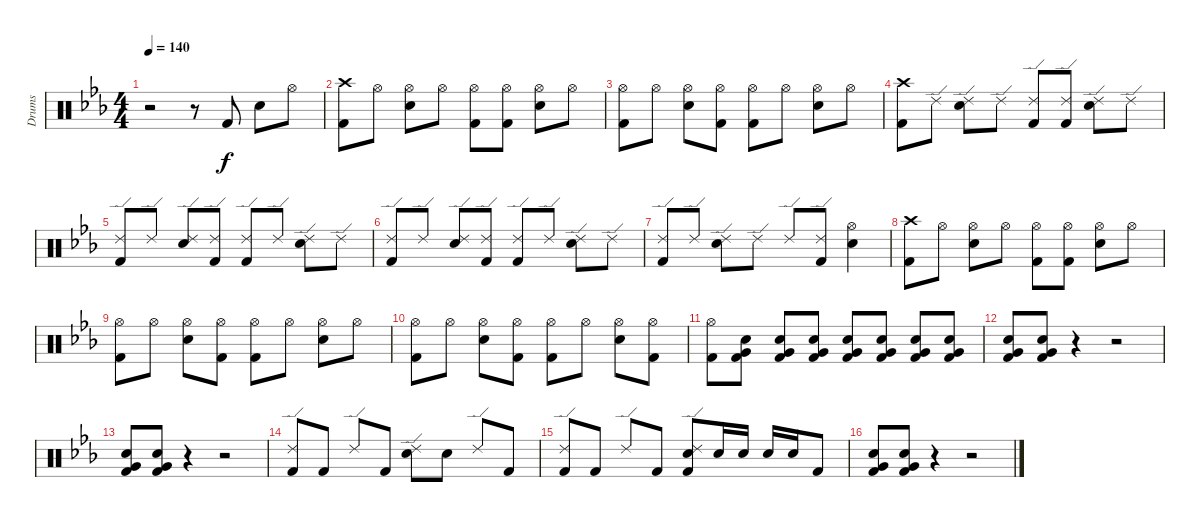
\track ("Drums" "Drums") {instrument percussion}
\staff {score}
\articulation defaults
\ts (4 4)
\tempo 140
\clef neutral
\ks eb
r.2{dy f} r.8 "Kick (hit) 2".8 "Snare (hit) 2".8 "Hi-Hat (open)".8 |
("Crash high (hit)" "Kick (hit) 2").8 "Hi-Hat (open)".8 ("Hi-Hat (open)" "Snare (hit) 2").8 "Hi-Hat (open)".8 ("Hi-Hat (open)" "Kick (hit) 2").8 ("Hi-Hat (open)" "Kick (hit) 2").8 ("Hi-Hat (open)" "Snare (hit) 2").8 "Hi-Hat (open)".8 |
("Hi-Hat (open)" "Kick (hit) 2").8 "Hi-Hat (open)".8 ("Hi-Hat (open)" "Snare (hit) 2").8 ("Hi-Hat (open)" "Kick (hit) 2").8 ("Hi-Hat (open)" "Kick (hit) 2").8 "Hi-Hat (open)".8 ("Hi-Hat (open)" "Snare (hit) 2").8 "Hi-Hat (open)".8 |
("Crash high (hit)" "Kick (hit) 2").8 "Ride (edge) 2".8 ("Ride (edge) 2" "Snare (hit) 2").8 "Ride (edge) 2".8 ("Ride (edge) 2" "Kick (hit) 2").8 ("Ride (edge) 2" "Kick (hit) 2").8 ("Ride (edge) 2" "Snare (hit) 2").8 "Ride (edge) 2".8 |
("Ride (edge) 2" "Kick (hit) 2").8 "Ride (edge) 2".8 ("Ride (edge) 2" "Snare (hit) 2").8 ("Ride (edge) 2" "Kick (hit) 2").8 ("Ride (edge) 2" "Kick (hit) 2").8 "Ride (edge) 2".8 ("Ride (edge) 2" "Snare (hit) 2").8 "Ride (edge) 2".8 |
("Ride (edge) 2" "Kick (hit) 2").8 "Ride (edge) 2".8 ("Ride (edge) 2" "Snare (hit) 2").8 ("Ride (edge) 2" "Kick (hit) 2").8 ("Ride (edge) 2" "Kick (hit) 2").8 "Ride (edge) 2".8 ("Ride (edge) 2" "Snare (hit) 2").8 "Ride (edge) 2".8 |
("Ride (edge) 2" "Kick (hit) 2").8 "Ride (edge) 2".8 ("Ride (edge) 2" "Snare (hit) 2").8 "Ride (edge) 2".8 "Ride (edge) 2".8 ("Ride (edge) 2" "Kick (hit) 2").8 ("Hi-Hat (open)" "Snare (hit) 2").4 |
("Crash high (hit)" "Kick (hit) 2").8 "Hi-Hat (open)".8 ("Hi-Hat (open)" "Snare (hit) 2").8 "Hi-Hat (open)".8 ("Hi-Hat (open)" "Kick (hit) 2").8 ("Hi-Hat (open)" "Kick (hit) 2").8 ("Hi-Hat (open)" "Snare (hit) 2").8 "Hi-Hat (open)".8 |
("Hi-Hat (open)" "Kick (hit) 2").8 "Hi-Hat (open)".8 ("Hi-Hat (open)" "Snare (hit) 2").8 ("Hi-Hat (open)" "Kick (hit) 2").8 ("Hi-Hat (open)" "Kick (hit) 2").8 "Hi-Hat (open)".8 ("Hi-Hat (open)" "Snare (hit) 2").8 "Hi-Hat (open)".8 |
("Hi-Hat (open)" "Kick (hit) 2").8 "Hi-Hat (open)".8 ("Hi-Hat (open)" "Snare (hit) 2").8 ("Hi-Hat (open)" "Kick (hit) 2").8 ("Hi-Hat (open)" "Kick (hit) 2").8 "Hi-Hat (open)".8 ("Hi-Hat (open)" "Snare (hit) 2").8 ("Hi-Hat (open)" "Kick (hit) 2").8 |
("Hi-Hat (open)" "Kick (hit) 2").8 ("Snare (hit) 2" "Very Low Tom (hit)" "Kick (hit) 2").8 ("Snare (hit) 2" "Very Low Tom (hit)" "Kick (hit) 2").8 ("Snare (hit) 2" "Very Low Tom (hit)" "Kick (hit) 2").8 ("Snare (hit) 2" "Very Low Tom (hit)" "Kick (hit) 2").8 ("Snare (hit) 2" "Very Low Tom (hit)" "Kick (hit) 2").8 ("Snare (hit) 2" "Very Low Tom (hit)" "Kick (hit) 2").8 ("Snare (hit) 2" "Very Low Tom (hit)" "Kick (hit) 2").8 |
("Snare (hit) 2" "Very Low Tom (hit)" "Kick (hit) 2").8 ("Snare (hit) 2" "Very Low Tom (hit)" "Kick (hit) 2").8 r.4 r.2 |
("Snare (hit) 2" "Very Low Tom (hit)" "Kick (hit) 2").8 ("Snare (hit) 2" "Very Low Tom (hit)" "Kick (hit) 2").8 r.4 r.2 |
("Ride (edge) 2" "Kick (hit) 2").8 "Kick (hit) 2".8 "Ride (edge) 2".8 "Kick (hit) 2".8 ("Ride (edge) 2" "Snare (hit) 2").8 "Snare (hit) 2".8 "Ride (edge) 2".8 "Kick (hit) 2".8 |
("Ride (edge) 2" "Kick (hit) 2").8 "Kick (hit) 2".8 "Ride (edge) 2".8 "Kick (hit) 2".8 ("Ride (edge) 2" "Snare (hit) 2" "Kick (hit) 2").8 "Snare (hit) 2".16 "Snare (hit) 2".16 "Snare (hit) 2".16 "Snare (hit) 2".16 "Kick (hit) 2".8 |
("Snare (hit) 2" "Very Low Tom (hit)" "Kick (hit) 2").8 ("Snare (hit) 2" "Very Low Tom (hit)" "Kick (hit) 2").8 r.4 r.2
